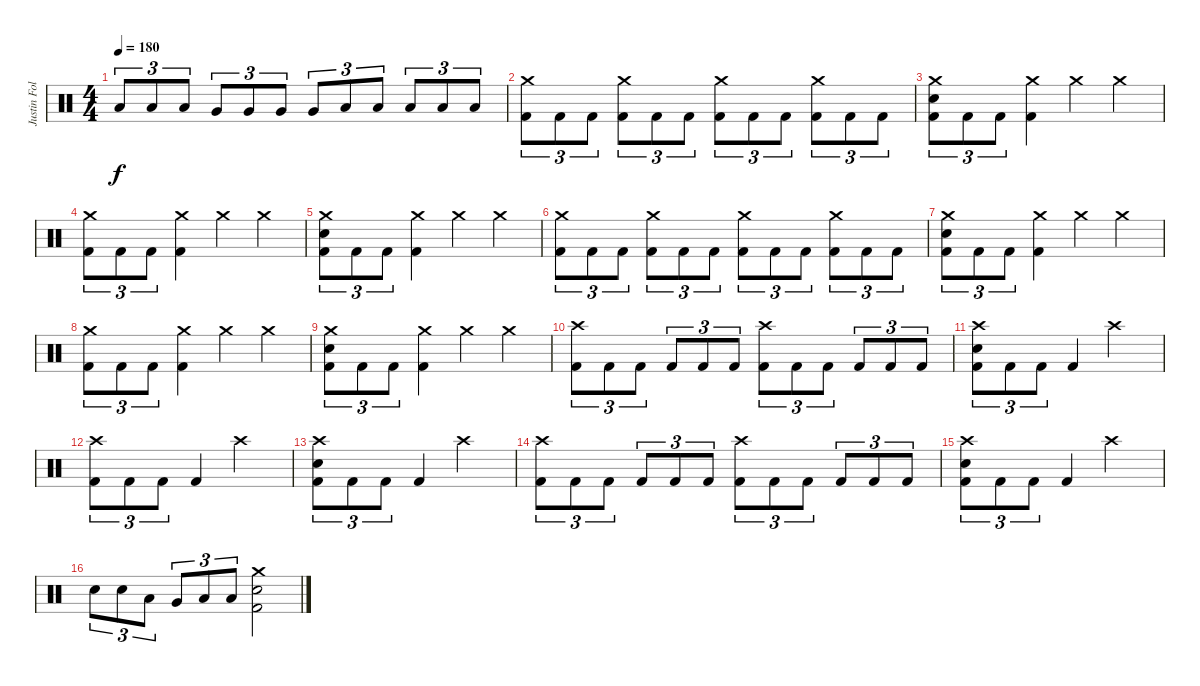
\track ("Justin Foley" "Justin Fol") {instrument percussion}
\staff {score}
\articulation defaults
\ts (4 4)
\tempo 180
\clef neutral
\ks c "Low Tom (hit)".8{tu (3 2) dy f} "Low Tom (hit)".8{tu (3 2)} "Low Tom (hit)".8{tu (3 2)} "Very Low Tom (hit)".8{tu (3 2)} "Very Low Tom (hit)".8{tu (3 2)} "Very Low Tom (hit)".8{tu (3 2)} "Very Low Tom (hit)".8{tu (3 2)} "Low Floor Tom (hit)".8{tu (3 2)} "Low Floor Tom (hit)".8{tu (3 2)} "Low Floor Tom (hit)".8{tu (3 2)} "Low Floor Tom (hit)".8{tu (3 2)} "Low Floor Tom (hit)".8{tu (3 2)}
|
("Crash medium (hit)" "Kick (hit) 2").8{tu (3 2)} "Kick (hit) 2".8{tu (3 2)} "Kick (hit) 2".8{tu (3 2)} ("Crash medium (hit)" "Kick (hit) 2").8{tu (3 2)} "Kick (hit) 2".8{tu (3 2)} "Kick (hit) 2".8{tu (3 2)} ("Crash medium (hit)" "Kick (hit) 2").8{tu (3 2)} "Kick (hit) 2".8{tu (3 2)} "Kick (hit) 2".8{tu (3 2)} ("Crash medium (hit)" "Kick (hit) 2").8{tu (3 2)} "Kick (hit) 2".8{tu (3 2)} "Kick (hit) 2".8{tu (3 2)} |
("Crash medium (hit)" "Electric Snare (hit)" "Kick (hit) 2").8{tu (3 2)} "Kick (hit) 2".8{tu (3 2)} "Kick (hit) 2".8{tu (3 2)} ("Crash medium (hit)" "Kick (hit) 2").4 "Crash medium (hit)".4 "Crash medium (hit)".4 |
("Crash medium (hit)" "Kick (hit) 2").8{tu (3 2)} "Kick (hit) 2".8{tu (3 2)} "Kick (hit) 2".8{tu (3 2)} ("Crash medium (hit)" "Kick (hit) 2").4 "Crash medium (hit)".4 "Crash medium (hit)".4 |
("Crash medium (hit)" "Electric Snare (hit)" "Kick (hit) 2").8{tu (3 2)} "Kick (hit) 2".8{tu (3 2)} "Kick (hit) 2".8{tu (3 2)} ("Crash medium (hit)" "Kick (hit) 2").4 "Crash medium (hit)".4 "Crash medium (hit)".4 |
("Crash medium (hit)" "Kick (hit) 2").8{tu (3 2)} "Kick (hit) 2".8{tu (3 2)} "Kick (hit) 2".8{tu (3 2)} ("Crash medium (hit)" "Kick (hit) 2").8{tu (3 2)} "Kick (hit) 2".8{tu (3 2)} "Kick (hit) 2".8{tu (3 2)} ("Crash medium (hit)" "Kick (hit) 2").8{tu (3 2)} "Kick (hit) 2".8{tu (3 2)} "Kick (hit) 2".8{tu (3 2)} ("Crash medium (hit)" "Kick (hit) 2").8{tu (3 2)} "Kick (hit) 2".8{tu (3 2)} "Kick (hit) 2".8{tu (3 2)} |
("Crash medium (hit)" "Electric Snare (hit)" "Kick (hit) 2").8{tu (3 2)} "Kick (hit) 2".8{tu (3 2)} "Kick (hit) 2".8{tu (3 2)} ("Crash medium (hit)" "Kick (hit) 2").4 "Crash medium (hit)".4 "Crash medium (hit)".4 |
("Crash medium (hit)" "Kick (hit) 2").8{tu (3 2)} "Kick (hit) 2".8{tu (3 2)} "Kick (hit) 2".8{tu (3 2)} ("Crash medium (hit)" "Kick (hit) 2").4 "Crash medium (hit)".4 "Crash medium (hit)".4 |
("Crash medium (hit)" "Electric Snare (hit)" "Kick (hit) 2").8{tu (3 2)} "Kick (hit) 2".8{tu (3 2)} "Kick (hit) 2".8{tu (3 2)} ("Crash medium (hit)" "Kick (hit) 2").4 "Crash medium (hit)".4 "Crash medium (hit)".4 |
("Crash high (hit)" "Kick (hit) 2").8{tu (3 2)} "Kick (hit) 2".8{tu (3 2)} "Kick (hit) 2".8{tu (3 2)} "Kick (hit) 2".8{tu (3 2)} "Kick (hit) 2".8{tu (3 2)} "Kick (hit) 2".8{tu (3 2)} ("Crash high (hit)" "Kick (hit) 2").8{tu (3 2)} "Kick (hit) 2".8{tu (3 2)} "Kick (hit) 2".8{tu (3 2)} "Kick (hit) 2".8{tu (3 2)} "Kick (hit) 2".8{tu (3 2)} "Kick (hit) 2".8{tu (3 2)} |
("Crash high (hit)" "Electric Snare (hit)" "Kick (hit) 2").8{tu (3 2)} "Kick (hit) 2".8{tu (3 2)} "Kick (hit) 2".8{tu (3 2)} "Kick (hit) 2".4 "Crash high (hit)".2 |
("Crash high (hit)" "Kick (hit) 2").8{tu (3 2)} "Kick (hit) 2".8{tu (3 2)} "Kick (hit) 2".8{tu (3 2)} "Kick (hit) 2".4 "Crash high (hit)".2 |
("Crash high (hit)" "Electric Snare (hit)" "Kick (hit) 2").8{tu (3 2)} "Kick (hit) 2".8{tu (3 2)} "Kick (hit) 2".8{tu (3 2)} "Kick (hit) 2".4 "Crash high (hit)".2 |
("Crash high (hit)" "Kick (hit) 2").8{tu (3 2)} "Kick (hit) 2".8{tu (3 2)} "Kick (hit) 2".8{tu (3 2)} "Kick (hit) 2".8{tu (3 2)} "Kick (hit) 2".8{tu (3 2)} "Kick (hit) 2".8{tu (3 2)} ("Crash high (hit)" "Kick (hit) 2").8{tu (3 2)} "Kick (hit) 2".8{tu (3 2)} "Kick (hit) 2".8{tu (3 2)} "Kick (hit) 2".8{tu (3 2)} "Kick (hit) 2".8{tu (3 2)} "Kick (hit) 2".8{tu (3 2)} |
("Crash high (hit)" "Electric Snare (hit)" "Kick (hit) 2").8{tu (3 2)} "Kick (hit) 2".8{tu (3 2)} "Kick (hit) 2".8{tu (3 2)} "Kick (hit) 2".4 "Crash high (hit)".2 |
"Electric Snare (hit)".8{tu (3 2)} "Electric Snare (hit)".8{tu (3 2)} "Low Tom (hit)".8{tu (3 2)} "Very Low Tom (hit)".8{tu (3 2)} "Low Floor Tom (hit)".8{tu (3 2)} "Low Floor Tom (hit)".8{tu (3 2)} ("Crash medium (hit)" "Electric Snare (hit)" "Kick (hit) 2").2
